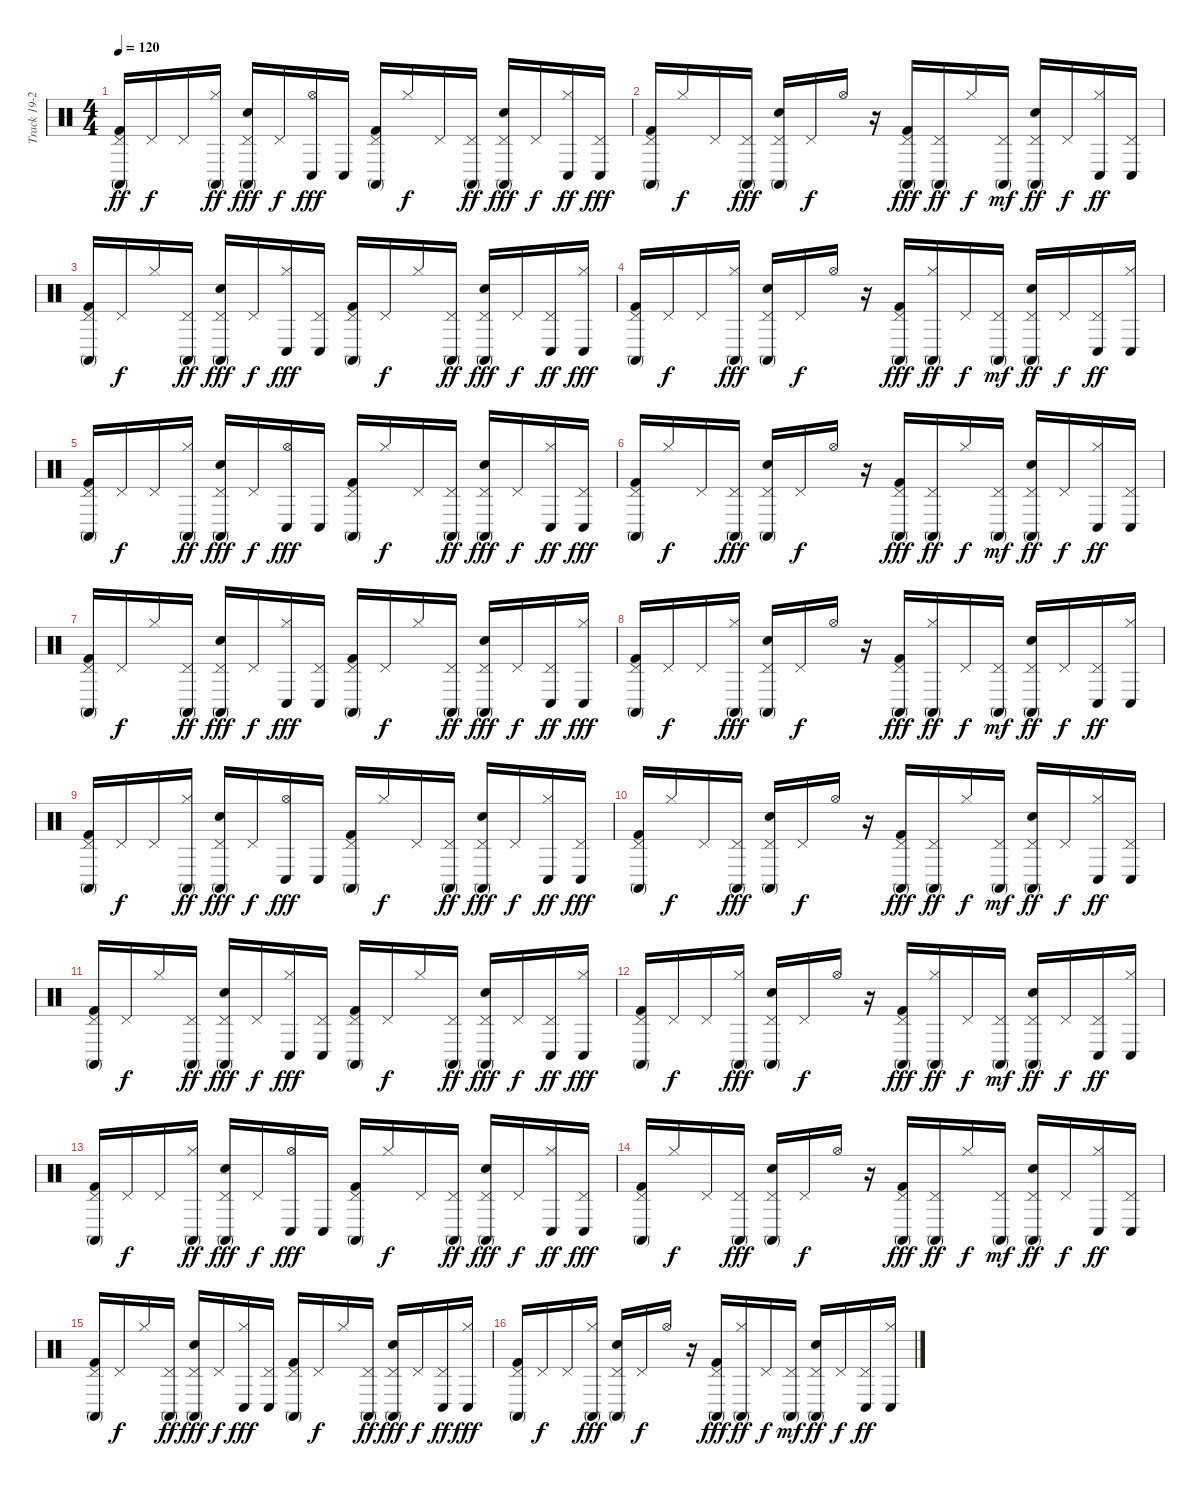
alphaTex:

\track ("Track 19-20-21" "Track 19-2") {instrument percussion}
\staff {score}
\articulation defaults
\ts (4 4)
\tempo 120
\clef neutral
\ks c
("Conga high (mute)" "Kick (hit) 2" "Pedal Hi-Hat (hit)").16{dy ff} "Pedal Hi-Hat (hit)".16{dy f} "Pedal Hi-Hat (hit)".16 ("Hi-Hat (closed)" "Conga high (mute)").16{dy ff} ("Conga high (mute)" "Snare (hit) 2" "Pedal Hi-Hat (hit)").16{dy fff} "Pedal Hi-Hat (hit)".16{dy f} ("Hi-Hat (open)" "Conga low (hit)").16{dy fff} "Conga low (hit)".16 ("Pedal Hi-Hat (hit)" "Conga high (mute)" "Kick (hit) 2").16 "Hi-Hat (closed)".16{dy f} "Pedal Hi-Hat (hit)".16 ("Pedal Hi-Hat (hit)" "Conga high (mute)").16{dy ff} ("Pedal Hi-Hat (hit)" "Conga high (mute)" "Snare (hit) 2").16{dy fff} "Pedal Hi-Hat (hit)".16{dy f} ("Hi-Hat (closed)" "Conga low (hit)").16{dy ff} ("Pedal Hi-Hat (hit)" "Conga low (hit)").16{dy fff} |
("Pedal Hi-Hat (hit)" "Conga high (mute)" "Kick (hit) 2").16 "Hi-Hat (closed)".16{dy f} "Pedal Hi-Hat (hit)".16 ("Pedal Hi-Hat (hit)" "Conga high (mute)").16{dy fff} ("Pedal Hi-Hat (hit)" "Conga high (mute)" "Snare (hit) 2").16 "Pedal Hi-Hat (hit)".16{dy f} "Hi-Hat (open)".16 r.16 ("Conga high (mute)" "Kick (hit) 2" "Pedal Hi-Hat (hit)").16{dy fff} ("Pedal Hi-Hat (hit)" "Conga high (mute)").16{dy ff} "Hi-Hat (closed)".16{dy f} ("Conga high (mute)" "Pedal Hi-Hat (hit)").16{dy mf} ("Conga high (mute)" "Snare (hit) 2" "Pedal Hi-Hat (hit)").16{dy ff} "Pedal Hi-Hat (hit)".16{dy f} ("Hi-Hat (closed)" "Conga low (hit)").16{dy ff} ("Pedal Hi-Hat (hit)" "Conga low (hit)").16 |
("Conga high (mute)" "Kick (hit) 2" "Pedal Hi-Hat (hit)").16 "Pedal Hi-Hat (hit)".16{dy f} "Hi-Hat (closed)".16 ("Pedal Hi-Hat (hit)" "Conga high (mute)").16{dy ff} ("Conga high (mute)" "Snare (hit) 2" "Pedal Hi-Hat (hit)").16{dy fff} "Pedal Hi-Hat (hit)".16{dy f} ("Hi-Hat (closed)" "Conga low (hit)").16{dy fff} ("Pedal Hi-Hat (hit)" "Conga low (hit)").16 ("Pedal Hi-Hat (hit)" "Conga high (mute)" "Kick (hit) 2").16 "Pedal Hi-Hat (hit)".16{dy f} "Hi-Hat (closed)".16 ("Pedal Hi-Hat (hit)" "Conga high (mute)").16{dy ff} ("Pedal Hi-Hat (hit)" "Conga high (mute)" "Snare (hit) 2").16{dy fff} "Pedal Hi-Hat (hit)".16{dy f} ("Pedal Hi-Hat (hit)" "Conga low (hit)").16{dy ff} ("Hi-Hat (closed)" "Conga low (hit)").16{dy fff} |
("Pedal Hi-Hat (hit)" "Conga high (mute)" "Kick (hit) 2").16 "Pedal Hi-Hat (hit)".16{dy f} "Pedal Hi-Hat (hit)".16 ("Hi-Hat (closed)" "Conga high (mute)").16{dy fff} ("Pedal Hi-Hat (hit)" "Conga high (mute)" "Snare (hit) 2").16 "Pedal Hi-Hat (hit)".16{dy f} "Hi-Hat (open)".16 r.16 ("Conga high (mute)" "Kick (hit) 2" "Pedal Hi-Hat (hit)").16{dy fff} ("Hi-Hat (closed)" "Conga high (mute)").16{dy ff} "Pedal Hi-Hat (hit)".16{dy f} ("Conga high (mute)" "Pedal Hi-Hat (hit)").16{dy mf} ("Conga high (mute)" "Snare (hit) 2" "Pedal Hi-Hat (hit)").16{dy ff} "Pedal Hi-Hat (hit)".16{dy f} ("Conga low (hit)" "Pedal Hi-Hat (hit)").16{dy ff} ("Hi-Hat (closed)" "Conga low (hit)").16 |
("Conga high (mute)" "Kick (hit) 2" "Pedal Hi-Hat (hit)").16 "Pedal Hi-Hat (hit)".16{dy f} "Pedal Hi-Hat (hit)".16 ("Hi-Hat (closed)" "Conga high (mute)").16{dy ff} ("Conga high (mute)" "Snare (hit) 2" "Pedal Hi-Hat (hit)").16{dy fff} "Pedal Hi-Hat (hit)".16{dy f} ("Hi-Hat (open)" "Conga low (hit)").16{dy fff} "Conga low (hit)".16 ("Pedal Hi-Hat (hit)" "Conga high (mute)" "Kick (hit) 2").16 "Hi-Hat (closed)".16{dy f} "Pedal Hi-Hat (hit)".16 ("Pedal Hi-Hat (hit)" "Conga high (mute)").16{dy ff} ("Pedal Hi-Hat (hit)" "Conga high (mute)" "Snare (hit) 2").16{dy fff} "Pedal Hi-Hat (hit)".16{dy f} ("Hi-Hat (closed)" "Conga low (hit)").16{dy ff} ("Pedal Hi-Hat (hit)" "Conga low (hit)").16{dy fff} |
("Pedal Hi-Hat (hit)" "Conga high (mute)" "Kick (hit) 2").16 "Hi-Hat (closed)".16{dy f} "Pedal Hi-Hat (hit)".16 ("Pedal Hi-Hat (hit)" "Conga high (mute)").16{dy fff} ("Pedal Hi-Hat (hit)" "Conga high (mute)" "Snare (hit) 2").16 "Pedal Hi-Hat (hit)".16{dy f} "Hi-Hat (open)".16 r.16 ("Conga high (mute)" "Kick (hit) 2" "Pedal Hi-Hat (hit)").16{dy fff} ("Pedal Hi-Hat (hit)" "Conga high (mute)").16{dy ff} "Hi-Hat (closed)".16{dy f} ("Conga high (mute)" "Pedal Hi-Hat (hit)").16{dy mf} ("Conga high (mute)" "Snare (hit) 2" "Pedal Hi-Hat (hit)").16{dy ff} "Pedal Hi-Hat (hit)".16{dy f} ("Hi-Hat (closed)" "Conga low (hit)").16{dy ff} ("Pedal Hi-Hat (hit)" "Conga low (hit)").16 |
("Conga high (mute)" "Kick (hit) 2" "Pedal Hi-Hat (hit)").16 "Pedal Hi-Hat (hit)".16{dy f} "Hi-Hat (closed)".16 ("Pedal Hi-Hat (hit)" "Conga high (mute)").16{dy ff} ("Conga high (mute)" "Snare (hit) 2" "Pedal Hi-Hat (hit)").16{dy fff} "Pedal Hi-Hat (hit)".16{dy f} ("Hi-Hat (closed)" "Conga low (hit)").16{dy fff} ("Pedal Hi-Hat (hit)" "Conga low (hit)").16 ("Pedal Hi-Hat (hit)" "Conga high (mute)" "Kick (hit) 2").16 "Pedal Hi-Hat (hit)".16{dy f} "Hi-Hat (closed)".16 ("Pedal Hi-Hat (hit)" "Conga high (mute)").16{dy ff} ("Pedal Hi-Hat (hit)" "Conga high (mute)" "Snare (hit) 2").16{dy fff} "Pedal Hi-Hat (hit)".16{dy f} ("Pedal Hi-Hat (hit)" "Conga low (hit)").16{dy ff} ("Hi-Hat (closed)" "Conga low (hit)").16{dy fff} |
("Pedal Hi-Hat (hit)" "Conga high (mute)" "Kick (hit) 2").16 "Pedal Hi-Hat (hit)".16{dy f} "Pedal Hi-Hat (hit)".16 ("Hi-Hat (closed)" "Conga high (mute)").16{dy fff} ("Pedal Hi-Hat (hit)" "Conga high (mute)" "Snare (hit) 2").16 "Pedal Hi-Hat (hit)".16{dy f} "Hi-Hat (open)".16 r.16 ("Conga high (mute)" "Kick (hit) 2" "Pedal Hi-Hat (hit)").16{dy fff} ("Hi-Hat (closed)" "Conga high (mute)").16{dy ff} "Pedal Hi-Hat (hit)".16{dy f} ("Conga high (mute)" "Pedal Hi-Hat (hit)").16{dy mf} ("Conga high (mute)" "Snare (hit) 2" "Pedal Hi-Hat (hit)").16{dy ff} "Pedal Hi-Hat (hit)".16{dy f} ("Conga low (hit)" "Pedal Hi-Hat (hit)").16{dy ff} ("Hi-Hat (closed)" "Conga low (hit)").16 |
("Conga high (mute)" "Kick (hit) 2" "Pedal Hi-Hat (hit)").16 "Pedal Hi-Hat (hit)".16{dy f} "Pedal Hi-Hat (hit)".16 ("Hi-Hat (closed)" "Conga high (mute)").16{dy ff} ("Conga high (mute)" "Snare (hit) 2" "Pedal Hi-Hat (hit)").16{dy fff} "Pedal Hi-Hat (hit)".16{dy f} ("Hi-Hat (open)" "Conga low (hit)").16{dy fff} "Conga low (hit)".16 ("Pedal Hi-Hat (hit)" "Conga high (mute)" "Kick (hit) 2").16 "Hi-Hat (closed)".16{dy f} "Pedal Hi-Hat (hit)".16 ("Pedal Hi-Hat (hit)" "Conga high (mute)").16{dy ff} ("Pedal Hi-Hat (hit)" "Conga high (mute)" "Snare (hit) 2").16{dy fff} "Pedal Hi-Hat (hit)".16{dy f} ("Hi-Hat (closed)" "Conga low (hit)").16{dy ff} ("Pedal Hi-Hat (hit)" "Conga low (hit)").16{dy fff} |
("Pedal Hi-Hat (hit)" "Conga high (mute)" "Kick (hit) 2").16 "Hi-Hat (closed)".16{dy f} "Pedal Hi-Hat (hit)".16 ("Pedal Hi-Hat (hit)" "Conga high (mute)").16{dy fff} ("Pedal Hi-Hat (hit)" "Conga high (mute)" "Snare (hit) 2").16 "Pedal Hi-Hat (hit)".16{dy f} "Hi-Hat (open)".16 r.16 ("Conga high (mute)" "Kick (hit) 2" "Pedal Hi-Hat (hit)").16{dy fff} ("Pedal Hi-Hat (hit)" "Conga high (mute)").16{dy ff} "Hi-Hat (closed)".16{dy f} ("Conga high (mute)" "Pedal Hi-Hat (hit)").16{dy mf} ("Conga high (mute)" "Snare (hit) 2" "Pedal Hi-Hat (hit)").16{dy ff} "Pedal Hi-Hat (hit)".16{dy f} ("Hi-Hat (closed)" "Conga low (hit)").16{dy ff} ("Pedal Hi-Hat (hit)" "Conga low (hit)").16 |
("Conga high (mute)" "Kick (hit) 2" "Pedal Hi-Hat (hit)").16 "Pedal Hi-Hat (hit)".16{dy f} "Hi-Hat (closed)".16 ("Pedal Hi-Hat (hit)" "Conga high (mute)").16{dy ff} ("Conga high (mute)" "Snare (hit) 2" "Pedal Hi-Hat (hit)").16{dy fff} "Pedal Hi-Hat (hit)".16{dy f} ("Hi-Hat (closed)" "Conga low (hit)").16{dy fff} ("Pedal Hi-Hat (hit)" "Conga low (hit)").16 ("Pedal Hi-Hat (hit)" "Conga high (mute)" "Kick (hit) 2").16 "Pedal Hi-Hat (hit)".16{dy f} "Hi-Hat (closed)".16 ("Pedal Hi-Hat (hit)" "Conga high (mute)").16{dy ff} ("Pedal Hi-Hat (hit)" "Conga high (mute)" "Snare (hit) 2").16{dy fff} "Pedal Hi-Hat (hit)".16{dy f} ("Pedal Hi-Hat (hit)" "Conga low (hit)").16{dy ff} ("Hi-Hat (closed)" "Conga low (hit)").16{dy fff} |
("Pedal Hi-Hat (hit)" "Conga high (mute)" "Kick (hit) 2").16 "Pedal Hi-Hat (hit)".16{dy f} "Pedal Hi-Hat (hit)".16 ("Hi-Hat (closed)" "Conga high (mute)").16{dy fff} ("Pedal Hi-Hat (hit)" "Conga high (mute)" "Snare (hit) 2").16 "Pedal Hi-Hat (hit)".16{dy f} "Hi-Hat (open)".16 r.16 ("Conga high (mute)" "Kick (hit) 2" "Pedal Hi-Hat (hit)").16{dy fff} ("Hi-Hat (closed)" "Conga high (mute)").16{dy ff} "Pedal Hi-Hat (hit)".16{dy f} ("Conga high (mute)" "Pedal Hi-Hat (hit)").16{dy mf} ("Conga high (mute)" "Snare (hit) 2" "Pedal Hi-Hat (hit)").16{dy ff} "Pedal Hi-Hat (hit)".16{dy f} ("Conga low (hit)" "Pedal Hi-Hat (hit)").16{dy ff} ("Hi-Hat (closed)" "Conga low (hit)").16 |
("Conga high (mute)" "Kick (hit) 2" "Pedal Hi-Hat (hit)").16 "Pedal Hi-Hat (hit)".16{dy f} "Pedal Hi-Hat (hit)".16 ("Hi-Hat (closed)" "Conga high (mute)").16{dy ff} ("Conga high (mute)" "Snare (hit) 2" "Pedal Hi-Hat (hit)").16{dy fff} "Pedal Hi-Hat (hit)".16{dy f} ("Hi-Hat (open)" "Conga low (hit)").16{dy fff} "Conga low (hit)".16 ("Pedal Hi-Hat (hit)" "Conga high (mute)" "Kick (hit) 2").16 "Hi-Hat (closed)".16{dy f} "Pedal Hi-Hat (hit)".16 ("Pedal Hi-Hat (hit)" "Conga high (mute)").16{dy ff} ("Pedal Hi-Hat (hit)" "Conga high (mute)" "Snare (hit) 2").16{dy fff} "Pedal Hi-Hat (hit)".16{dy f} ("Hi-Hat (closed)" "Conga low (hit)").16{dy ff} ("Pedal Hi-Hat (hit)" "Conga low (hit)").16{dy fff} |
("Pedal Hi-Hat (hit)" "Conga high (mute)" "Kick (hit) 2").16 "Hi-Hat (closed)".16{dy f} "Pedal Hi-Hat (hit)".16 ("Pedal Hi-Hat (hit)" "Conga high (mute)").16{dy fff} ("Pedal Hi-Hat (hit)" "Conga high (mute)" "Snare (hit) 2").16 "Pedal Hi-Hat (hit)".16{dy f} "Hi-Hat (open)".16 r.16 ("Conga high (mute)" "Kick (hit) 2" "Pedal Hi-Hat (hit)").16{dy fff} ("Pedal Hi-Hat (hit)" "Conga high (mute)").16{dy ff} "Hi-Hat (closed)".16{dy f} ("Conga high (mute)" "Pedal Hi-Hat (hit)").16{dy mf} ("Conga high (mute)" "Snare (hit) 2" "Pedal Hi-Hat (hit)").16{dy ff} "Pedal Hi-Hat (hit)".16{dy f} ("Hi-Hat (closed)" "Conga low (hit)").16{dy ff} ("Pedal Hi-Hat (hit)" "Conga low (hit)").16 |
("Conga high (mute)" "Kick (hit) 2" "Pedal Hi-Hat (hit)").16 "Pedal Hi-Hat (hit)".16{dy f} "Hi-Hat (closed)".16 ("Pedal Hi-Hat (hit)" "Conga high (mute)").16{dy ff} ("Conga high (mute)" "Snare (hit) 2" "Pedal Hi-Hat (hit)").16{dy fff} "Pedal Hi-Hat (hit)".16{dy f} ("Hi-Hat (closed)" "Conga low (hit)").16{dy fff} ("Pedal Hi-Hat (hit)" "Conga low (hit)").16 ("Pedal Hi-Hat (hit)" "Conga high (mute)" "Kick (hit) 2").16 "Pedal Hi-Hat (hit)".16{dy f} "Hi-Hat (closed)".16 ("Pedal Hi-Hat (hit)" "Conga high (mute)").16{dy ff} ("Pedal Hi-Hat (hit)" "Conga high (mute)" "Snare (hit) 2").16{dy fff} "Pedal Hi-Hat (hit)".16{dy f} ("Pedal Hi-Hat (hit)" "Conga low (hit)").16{dy ff} ("Hi-Hat (closed)" "Conga low (hit)").16{dy fff} |
("Pedal Hi-Hat (hit)" "Conga high (mute)" "Kick (hit) 2").16 "Pedal Hi-Hat (hit)".16{dy f} "Pedal Hi-Hat (hit)".16 ("Hi-Hat (closed)" "Conga high (mute)").16{dy fff} ("Pedal Hi-Hat (hit)" "Conga high (mute)" "Snare (hit) 2").16 "Pedal Hi-Hat (hit)".16{dy f} "Hi-Hat (open)".16 r.16 ("Conga high (mute)" "Kick (hit) 2" "Pedal Hi-Hat (hit)").16{dy fff} ("Hi-Hat (closed)" "Conga high (mute)").16{dy ff} "Pedal Hi-Hat (hit)".16{dy f} ("Conga high (mute)" "Pedal Hi-Hat (hit)").16{dy mf} ("Conga high (mute)" "Snare (hit) 2" "Pedal Hi-Hat (hit)").16{dy ff} "Pedal Hi-Hat (hit)".16{dy f} ("Conga low (hit)" "Pedal Hi-Hat (hit)").16{dy ff} ("Hi-Hat (closed)" "Conga low (hit)").16
